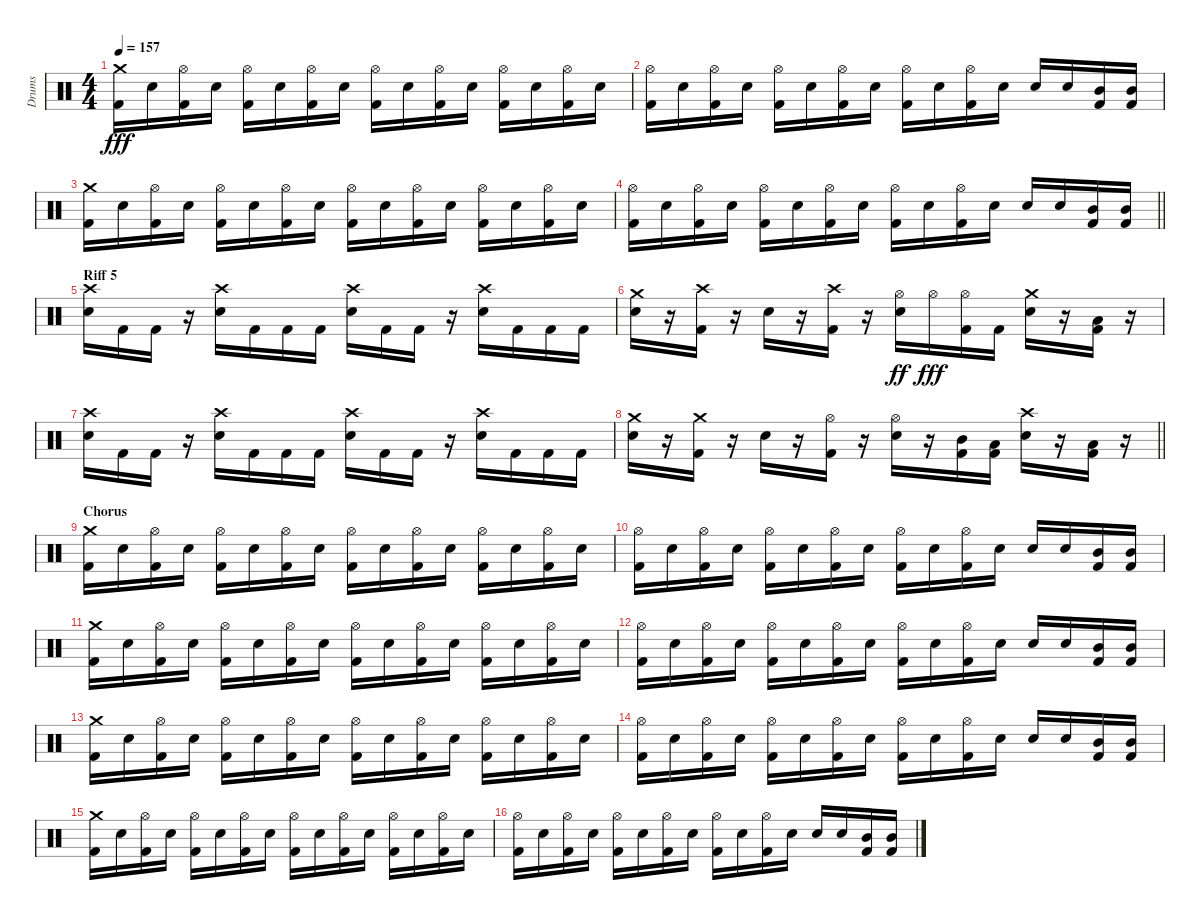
\track ("Drums" "Drums") {instrument percussion}
\staff {score}
\articulation defaults
\ts (4 4)
\tempo 157
\clef neutral
\ks c
("Kick (hit) 2" "Crash medium (hit)").16{dy fff} "Snare (hit) 2".16 ("Kick (hit) 2" "Hi-Hat (open)").16 "Snare (hit) 2".16 ("Kick (hit) 2" "Hi-Hat (open)").16 "Snare (hit) 2".16 ("Kick (hit) 2" "Hi-Hat (open)").16 "Snare (hit) 2".16 ("Kick (hit) 2" "Hi-Hat (open)").16 "Snare (hit) 2".16 ("Kick (hit) 2" "Hi-Hat (open)").16 "Snare (hit) 2".16 ("Kick (hit) 2" "Hi-Hat (open)").16 "Snare (hit) 2".16 ("Kick (hit) 2" "Hi-Hat (open)").16 "Snare (hit) 2".16 |
("Kick (hit) 2" "Hi-Hat (open)").16 "Snare (hit) 2".16 ("Kick (hit) 2" "Hi-Hat (open)").16 "Snare (hit) 2".16 ("Kick (hit) 2" "Hi-Hat (open)").16 "Snare (hit) 2".16 ("Kick (hit) 2" "Hi-Hat (open)").16 "Snare (hit) 2".16 ("Kick (hit) 2" "Hi-Hat (open)").16 "Snare (hit) 2".16 ("Kick (hit) 2" "Hi-Hat (open)").16 "Snare (hit) 2".16 "Snare (hit) 2".16 "Snare (hit) 2".16 ("Kick (hit) 2" "Mid Tom (hit)").16 ("Kick (hit) 2" "Mid Tom (hit)").16 |
("Kick (hit) 2" "Crash medium (hit)").16 "Snare (hit) 2".16 ("Kick (hit) 2" "Hi-Hat (open)").16 "Snare (hit) 2".16 ("Kick (hit) 2" "Hi-Hat (open)").16 "Snare (hit) 2".16 ("Kick (hit) 2" "Hi-Hat (open)").16 "Snare (hit) 2".16 ("Kick (hit) 2" "Hi-Hat (open)").16 "Snare (hit) 2".16 ("Kick (hit) 2" "Hi-Hat (open)").16 "Snare (hit) 2".16 ("Kick (hit) 2" "Hi-Hat (open)").16 "Snare (hit) 2".16 ("Kick (hit) 2" "Hi-Hat (open)").16 "Snare (hit) 2".16 |
\barLineRight lightlight
("Kick (hit) 2" "Hi-Hat (open)").16 "Snare (hit) 2".16 ("Kick (hit) 2" "Hi-Hat (open)").16 "Snare (hit) 2".16 ("Kick (hit) 2" "Hi-Hat (open)").16 "Snare (hit) 2".16 ("Kick (hit) 2" "Hi-Hat (open)").16 "Snare (hit) 2".16 ("Kick (hit) 2" "Hi-Hat (open)").16 "Snare (hit) 2".16 ("Kick (hit) 2" "Hi-Hat (open)").16 "Snare (hit) 2".16 "Snare (hit) 2".16 "Snare (hit) 2".16 ("Kick (hit) 2" "Mid Tom (hit)").16 ("Kick (hit) 2" "Mid Tom (hit)").16 |
\section ("" "Riff 5")
("Snare (hit) 2" "Crash high (hit)").16 "Kick (hit) 2".16 "Kick (hit) 2".16 r.16 ("Snare (hit) 2" "Crash high (hit)").16 "Kick (hit) 2".16 "Kick (hit) 2".16 "Kick (hit) 2".16 ("Snare (hit) 2" "Crash high (hit)").16 "Kick (hit) 2".16 "Kick (hit) 2".16 r.16 ("Snare (hit) 2" "Crash high (hit)").16 "Kick (hit) 2".16 "Kick (hit) 2".16 "Kick (hit) 2".16 |
("Snare (hit) 2" "Crash medium (hit)").16 r.16 ("Kick (hit) 2" "Crash high (hit)").16 r.16 "Snare (hit) 2".16 r.16 ("Kick (hit) 2" "Crash high (hit)").16 r.16 ("Snare (hit) 2" "Hi-Hat (open)").16{dy ff} "Hi-Hat (open)".16{dy fff} ("Kick (hit) 2" "Hi-Hat (open)").16 "Kick (hit) 2".16 ("Snare (hit) 2" "Crash medium (hit)").16 r.16 ("Kick (hit) 2" "Low Tom (hit)").16 r.16 |
("Snare (hit) 2" "Crash high (hit)").16 "Kick (hit) 2".16 "Kick (hit) 2".16 r.16 ("Snare (hit) 2" "Crash high (hit)").16 "Kick (hit) 2".16 "Kick (hit) 2".16 "Kick (hit) 2".16 ("Snare (hit) 2" "Crash high (hit)").16 "Kick (hit) 2".16 "Kick (hit) 2".16 r.16 ("Snare (hit) 2" "Crash high (hit)").16 "Kick (hit) 2".16 "Kick (hit) 2".16 "Kick (hit) 2".16 |
\barLineRight lightlight
("Snare (hit) 2" "Crash medium (hit)").16 r.16 ("Kick (hit) 2" "Crash medium (hit)").16 r.16 "Snare (hit) 2".16 r.16 ("Kick (hit) 2" "Hi-Hat (open)").16 r.16 ("Snare (hit) 2" "Hi-Hat (open)").16 r.16 ("Kick (hit) 2" "Mid Tom (hit)").16 ("Kick (hit) 2" "Low Tom (hit)").16 ("Snare (hit) 2" "Crash high (hit)").16 r.16 ("Kick (hit) 2" "Low Tom (hit)").16 r.16 |
\section ("" "Chorus")
("Kick (hit) 2" "Crash medium (hit)").16 "Snare (hit) 2".16 ("Kick (hit) 2" "Hi-Hat (open)").16 "Snare (hit) 2".16 ("Kick (hit) 2" "Hi-Hat (open)").16 "Snare (hit) 2".16 ("Kick (hit) 2" "Hi-Hat (open)").16 "Snare (hit) 2".16 ("Kick (hit) 2" "Hi-Hat (open)").16 "Snare (hit) 2".16 ("Kick (hit) 2" "Hi-Hat (open)").16 "Snare (hit) 2".16 ("Kick (hit) 2" "Hi-Hat (open)").16 "Snare (hit) 2".16 ("Kick (hit) 2" "Hi-Hat (open)").16 "Snare (hit) 2".16 |
("Kick (hit) 2" "Hi-Hat (open)").16 "Snare (hit) 2".16 ("Kick (hit) 2" "Hi-Hat (open)").16 "Snare (hit) 2".16 ("Kick (hit) 2" "Hi-Hat (open)").16 "Snare (hit) 2".16 ("Kick (hit) 2" "Hi-Hat (open)").16 "Snare (hit) 2".16 ("Kick (hit) 2" "Hi-Hat (open)").16 "Snare (hit) 2".16 ("Kick (hit) 2" "Hi-Hat (open)").16 "Snare (hit) 2".16 "Snare (hit) 2".16 "Snare (hit) 2".16 ("Kick (hit) 2" "Mid Tom (hit)").16 ("Kick (hit) 2" "Mid Tom (hit)").16 |
("Kick (hit) 2" "Crash medium (hit)").16 "Snare (hit) 2".16 ("Kick (hit) 2" "Hi-Hat (open)").16 "Snare (hit) 2".16 ("Kick (hit) 2" "Hi-Hat (open)").16 "Snare (hit) 2".16 ("Kick (hit) 2" "Hi-Hat (open)").16 "Snare (hit) 2".16 ("Kick (hit) 2" "Hi-Hat (open)").16 "Snare (hit) 2".16 ("Kick (hit) 2" "Hi-Hat (open)").16 "Snare (hit) 2".16 ("Kick (hit) 2" "Hi-Hat (open)").16 "Snare (hit) 2".16 ("Kick (hit) 2" "Hi-Hat (open)").16 "Snare (hit) 2".16 |
("Kick (hit) 2" "Hi-Hat (open)").16 "Snare (hit) 2".16 ("Kick (hit) 2" "Hi-Hat (open)").16 "Snare (hit) 2".16 ("Kick (hit) 2" "Hi-Hat (open)").16 "Snare (hit) 2".16 ("Kick (hit) 2" "Hi-Hat (open)").16 "Snare (hit) 2".16 ("Kick (hit) 2" "Hi-Hat (open)").16 "Snare (hit) 2".16 ("Kick (hit) 2" "Hi-Hat (open)").16 "Snare (hit) 2".16 "Snare (hit) 2".16 "Snare (hit) 2".16 ("Kick (hit) 2" "Mid Tom (hit)").16 ("Kick (hit) 2" "Mid Tom (hit)").16 |
("Kick (hit) 2" "Crash medium (hit)").16 "Snare (hit) 2".16 ("Kick (hit) 2" "Hi-Hat (open)").16 "Snare (hit) 2".16 ("Kick (hit) 2" "Hi-Hat (open)").16 "Snare (hit) 2".16 ("Kick (hit) 2" "Hi-Hat (open)").16 "Snare (hit) 2".16 ("Kick (hit) 2" "Hi-Hat (open)").16 "Snare (hit) 2".16 ("Kick (hit) 2" "Hi-Hat (open)").16 "Snare (hit) 2".16 ("Kick (hit) 2" "Hi-Hat (open)").16 "Snare (hit) 2".16 ("Kick (hit) 2" "Hi-Hat (open)").16 "Snare (hit) 2".16 |
("Kick (hit) 2" "Hi-Hat (open)").16 "Snare (hit) 2".16 ("Kick (hit) 2" "Hi-Hat (open)").16 "Snare (hit) 2".16 ("Kick (hit) 2" "Hi-Hat (open)").16 "Snare (hit) 2".16 ("Kick (hit) 2" "Hi-Hat (open)").16 "Snare (hit) 2".16 ("Kick (hit) 2" "Hi-Hat (open)").16 "Snare (hit) 2".16 ("Kick (hit) 2" "Hi-Hat (open)").16 "Snare (hit) 2".16 "Snare (hit) 2".16 "Snare (hit) 2".16 ("Kick (hit) 2" "Mid Tom (hit)").16 ("Kick (hit) 2" "Mid Tom (hit)").16 |
("Kick (hit) 2" "Crash medium (hit)").16 "Snare (hit) 2".16 ("Kick (hit) 2" "Hi-Hat (open)").16 "Snare (hit) 2".16 ("Kick (hit) 2" "Hi-Hat (open)").16 "Snare (hit) 2".16 ("Kick (hit) 2" "Hi-Hat (open)").16 "Snare (hit) 2".16 ("Kick (hit) 2" "Hi-Hat (open)").16 "Snare (hit) 2".16 ("Kick (hit) 2" "Hi-Hat (open)").16 "Snare (hit) 2".16 ("Kick (hit) 2" "Hi-Hat (open)").16 "Snare (hit) 2".16 ("Kick (hit) 2" "Hi-Hat (open)").16 "Snare (hit) 2".16 |
("Kick (hit) 2" "Hi-Hat (open)").16 "Snare (hit) 2".16 ("Kick (hit) 2" "Hi-Hat (open)").16 "Snare (hit) 2".16 ("Kick (hit) 2" "Hi-Hat (open)").16 "Snare (hit) 2".16 ("Kick (hit) 2" "Hi-Hat (open)").16 "Snare (hit) 2".16 ("Kick (hit) 2" "Hi-Hat (open)").16 "Snare (hit) 2".16 ("Kick (hit) 2" "Hi-Hat (open)").16 "Snare (hit) 2".16 "Snare (hit) 2".16 "Snare (hit) 2".16 ("Kick (hit) 2" "Mid Tom (hit)").16 ("Kick (hit) 2" "Mid Tom (hit)").16
